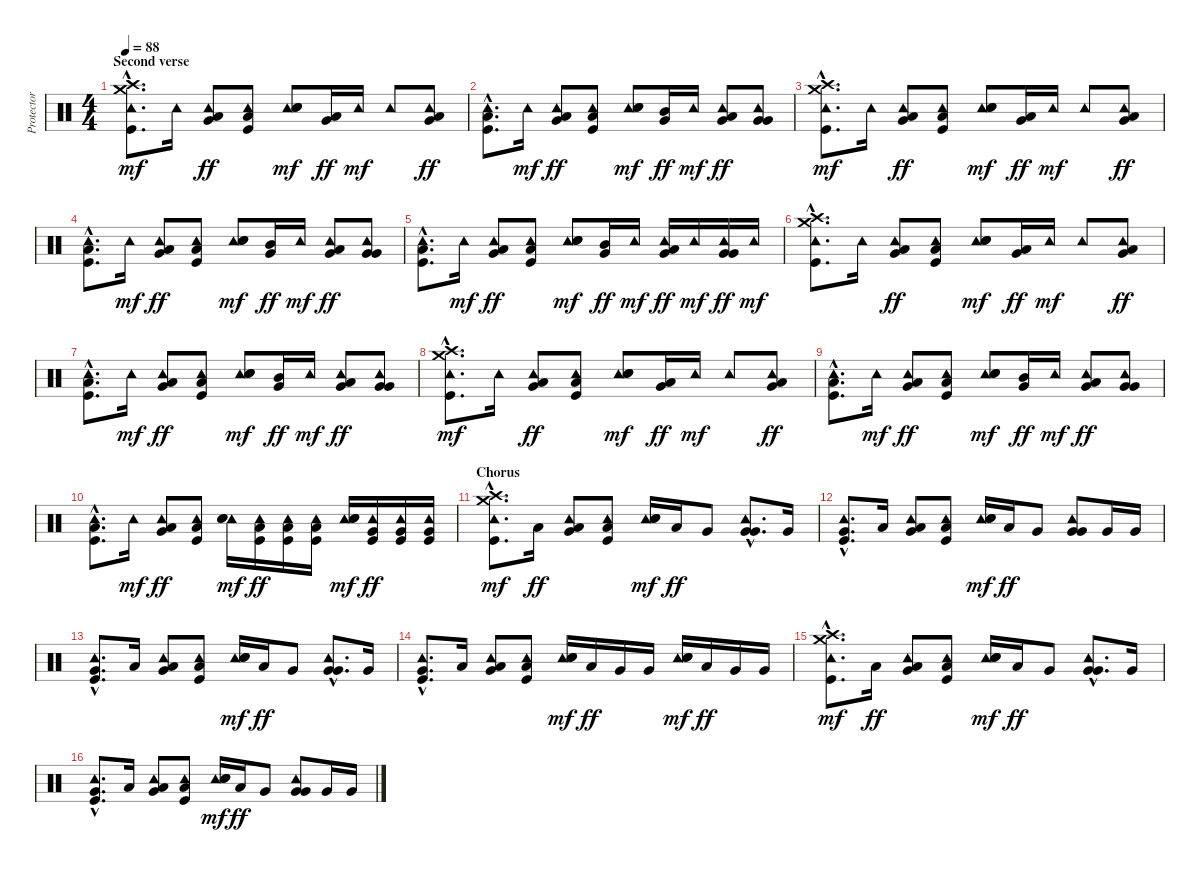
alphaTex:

\track ("Protector (Drums)" "Protector ") {instrument percussion}
\staff {score}
\articulation defaults
\ts (4 4)
\section ("" "Second verse")
\tempo 88
\clef neutral
\ks c
("Crash high (hit)"{hac} "Crash medium (hit)"{hac} "Tambourine (hit)"{hac} "Kick (hit)"{hac}).8{d dy mf} "Tambourine (hit)".16 ("Tambourine (hit)" "Low Tom (hit)" "Very Low Tom (hit)").8{bu 120 dy ff} ("Tambourine (hit)" "Low Floor Tom (hit)" "Kick (hit)").8 ("Tambourine (hit)" "Electric Snare (hit)" "Snare (hit) 2").8{dy mf} ("Low Tom (hit)" "Very Low Tom (hit)").16{bu 120 dy ff} "Tambourine (hit)".16{dy mf} "Tambourine (hit)".8 ("Tambourine (hit)" "Low Tom (hit)" "Very Low Tom (hit)").8{bu 120 dy ff} |
("Tambourine (hit)"{hac} "Low Floor Tom (hit)"{hac} "Kick (hit)"{hac}).8{d} "Tambourine (hit)".16{dy mf} ("Tambourine (hit)" "Low Tom (hit)" "Very Low Tom (hit)").8{bu 120 dy ff} ("Tambourine (hit)" "Low Floor Tom (hit)" "Kick (hit)").8 ("Tambourine (hit)" "Electric Snare (hit)" "Snare (hit) 2").8{dy mf} ("Mid Tom (hit)" "Very Low Tom (hit)").16{bu 120 dy ff} "Tambourine (hit)".16{dy mf} ("Tambourine (hit)" "Low Tom (hit)" "Very Low Tom (hit)").8{bu 120 dy ff} ("Tambourine (hit)" "Very Low Tom (hit)" "Very Low Tom (hit)").8{bu 120} |
("Crash high (hit)"{hac} "Crash medium (hit)"{hac} "Tambourine (hit)"{hac} "Kick (hit)"{hac}).8{d dy mf} "Tambourine (hit)".16 ("Tambourine (hit)" "Low Tom (hit)" "Very Low Tom (hit)").8{bu 120 dy ff} ("Tambourine (hit)" "Low Floor Tom (hit)" "Kick (hit)").8 ("Tambourine (hit)" "Electric Snare (hit)" "Snare (hit) 2").8{dy mf} ("Low Tom (hit)" "Very Low Tom (hit)").16{bu 120 dy ff} "Tambourine (hit)".16{dy mf} "Tambourine (hit)".8 ("Tambourine (hit)" "Low Tom (hit)" "Very Low Tom (hit)").8{bu 120 dy ff} |
("Tambourine (hit)"{hac} "Low Floor Tom (hit)"{hac} "Kick (hit)"{hac}).8{d} "Tambourine (hit)".16{dy mf} ("Tambourine (hit)" "Low Tom (hit)" "Very Low Tom (hit)").8{bu 120 dy ff} ("Tambourine (hit)" "Low Floor Tom (hit)" "Kick (hit)").8 ("Tambourine (hit)" "Electric Snare (hit)" "Snare (hit) 2").8{dy mf} ("Mid Tom (hit)" "Very Low Tom (hit)").16{bu 120 dy ff} "Tambourine (hit)".16{dy mf} ("Tambourine (hit)" "Low Tom (hit)" "Very Low Tom (hit)").8{bu 120 dy ff} ("Tambourine (hit)" "Very Low Tom (hit)" "Very Low Tom (hit)").8{bu 120} |
("Tambourine (hit)"{hac} "Low Floor Tom (hit)"{hac} "Kick (hit)"{hac}).8{d} "Tambourine (hit)".16{dy mf} ("Tambourine (hit)" "Low Tom (hit)" "Very Low Tom (hit)").8{bu 120 dy ff} ("Tambourine (hit)" "Low Floor Tom (hit)" "Kick (hit)").8 ("Tambourine (hit)" "Electric Snare (hit)" "Snare (hit) 2").8{dy mf} ("Mid Tom (hit)" "Very Low Tom (hit)").16{bu 120 dy ff} "Tambourine (hit)".16{dy mf} ("Tambourine (hit)" "Low Tom (hit)" "Very Low Tom (hit)").16{bu 120 dy ff} "Tambourine (hit)".16{dy mf} ("Tambourine (hit)" "Very Low Tom (hit)" "Very Low Tom (hit)").16{bu 120 dy ff} "Tambourine (hit)".16{dy mf} |
("Crash high (hit)"{hac} "Crash medium (hit)"{hac} "Tambourine (hit)"{hac} "Kick (hit)"{hac}).8{d} "Tambourine (hit)".16 ("Tambourine (hit)" "Low Tom (hit)" "Very Low Tom (hit)").8{bu 120 dy ff} ("Tambourine (hit)" "Low Floor Tom (hit)" "Kick (hit)").8 ("Tambourine (hit)" "Electric Snare (hit)" "Snare (hit) 2").8{dy mf} ("Low Tom (hit)" "Very Low Tom (hit)").16{bu 120 dy ff} "Tambourine (hit)".16{dy mf} "Tambourine (hit)".8 ("Tambourine (hit)" "Low Tom (hit)" "Very Low Tom (hit)").8{bu 120 dy ff} |
("Tambourine (hit)"{hac} "Low Floor Tom (hit)"{hac} "Kick (hit)"{hac}).8{d} "Tambourine (hit)".16{dy mf} ("Tambourine (hit)" "Low Tom (hit)" "Very Low Tom (hit)").8{bu 120 dy ff} ("Tambourine (hit)" "Low Floor Tom (hit)" "Kick (hit)").8 ("Tambourine (hit)" "Electric Snare (hit)" "Snare (hit) 2").8{dy mf} ("Mid Tom (hit)" "Very Low Tom (hit)").16{bu 120 dy ff} "Tambourine (hit)".16{dy mf} ("Tambourine (hit)" "Low Tom (hit)" "Very Low Tom (hit)").8{bu 120 dy ff} ("Tambourine (hit)" "Very Low Tom (hit)" "Very Low Tom (hit)").8{bu 120} |
("Crash high (hit)"{hac} "Crash medium (hit)"{hac} "Tambourine (hit)"{hac} "Kick (hit)"{hac}).8{d dy mf} "Tambourine (hit)".16 ("Tambourine (hit)" "Low Tom (hit)" "Very Low Tom (hit)").8{bu 120 dy ff} ("Tambourine (hit)" "Low Floor Tom (hit)" "Kick (hit)").8 ("Tambourine (hit)" "Electric Snare (hit)" "Snare (hit) 2").8{dy mf} ("Low Tom (hit)" "Very Low Tom (hit)").16{bu 120 dy ff} "Tambourine (hit)".16{dy mf} "Tambourine (hit)".8 ("Tambourine (hit)" "Low Tom (hit)" "Very Low Tom (hit)").8{bu 120 dy ff} |
("Tambourine (hit)"{hac} "Low Floor Tom (hit)"{hac} "Kick (hit)"{hac}).8{d} "Tambourine (hit)".16{dy mf} ("Tambourine (hit)" "Low Tom (hit)" "Very Low Tom (hit)").8{bu 120 dy ff} ("Tambourine (hit)" "Low Floor Tom (hit)" "Kick (hit)").8 ("Tambourine (hit)" "Electric Snare (hit)" "Snare (hit) 2").8{dy mf} ("Mid Tom (hit)" "Very Low Tom (hit)").16{bu 120 dy ff} "Tambourine (hit)".16{dy mf} ("Tambourine (hit)" "Low Tom (hit)" "Very Low Tom (hit)").8{bu 120 dy ff} ("Tambourine (hit)" "Very Low Tom (hit)" "Very Low Tom (hit)").8{bu 120} |
("Tambourine (hit)"{hac} "Low Floor Tom (hit)"{hac} "Kick (hit)"{hac}).8{d} "Tambourine (hit)".16{dy mf} ("Tambourine (hit)" "Low Tom (hit)" "Very Low Tom (hit)").8{bu 120 dy ff} ("Tambourine (hit)" "Low Floor Tom (hit)" "Kick (hit)").8 ("Tambourine (hit)" "Electric Snare (hit)" "Snare (hit) 2").16{dy mf} ("Tambourine (hit)" "Low Tom (hit)" "Kick (hit)").16{dy ff} ("Tambourine (hit)" "Low Tom (hit)" "Kick (hit)").16 ("Tambourine (hit)" "Low Tom (hit)" "Kick (hit)").16 ("Tambourine (hit)" "Electric Snare (hit)" "Snare (hit) 2").16{dy mf} ("Tambourine (hit)" "Very Low Tom (hit)" "Kick (hit)").16{dy ff} ("Tambourine (hit)" "Very Low Tom (hit)" "Kick (hit)").16 ("Tambourine (hit)" "Very Low Tom (hit)" "Kick (hit)").16 |
\section ("" "Chorus")
("Crash high (hit)"{hac} "Crash medium (hit)"{hac} "Tambourine (hit)"{hac} "Kick (hit)"{hac}).8{d dy mf} "Low Tom (hit)".16{dy ff} ("Tambourine (hit)" "Low Tom (hit)" "Very Low Tom (hit)").8{bu 120} ("Tambourine (hit)" "Low Floor Tom (hit)" "Kick (hit)").8 ("Tambourine (hit)" "Snare (hit) 2" "Electric Snare (hit)").16{dy mf} "Low Tom (hit)".16{dy ff} "Very Low Tom (hit)".8 ("Tambourine (hit)"{hac} "Very Low Tom (hit)"{hac} "Very Low Tom (hit)"{hac}).8{d bu 120} "Very Low Tom (hit)".16 |
("Tambourine (hit)"{hac} "Very Low Tom (hit)"{hac} "Kick (hit)"{hac}).8{d} "Low Tom (hit)".16 ("Tambourine (hit)" "Low Tom (hit)" "Very Low Tom (hit)").8{bu 120} ("Tambourine (hit)" "Low Floor Tom (hit)" "Kick (hit)").8 ("Tambourine (hit)" "Snare (hit) 2" "Electric Snare (hit)").16{dy mf} "Low Tom (hit)".16{dy ff} "Very Low Tom (hit)".8 ("Tambourine (hit)" "Very Low Tom (hit)" "Very Low Tom (hit)").8{bu 120} "Very Low Tom (hit)".16 "Very Low Tom (hit)".16 |
("Tambourine (hit)"{hac} "Very Low Tom (hit)"{hac} "Kick (hit)"{hac}).8{d} "Low Tom (hit)".16 ("Tambourine (hit)" "Low Tom (hit)" "Very Low Tom (hit)").8{bu 120} ("Tambourine (hit)" "Low Floor Tom (hit)" "Kick (hit)").8 ("Tambourine (hit)" "Snare (hit) 2" "Electric Snare (hit)").16{dy mf} "Low Tom (hit)".16{dy ff} "Very Low Tom (hit)".8 ("Tambourine (hit)"{hac} "Very Low Tom (hit)"{hac} "Very Low Tom (hit)"{hac}).8{d bu 120} "Very Low Tom (hit)".16 |
("Tambourine (hit)"{hac} "Very Low Tom (hit)"{hac} "Kick (hit)"{hac}).8{d} "Low Tom (hit)".16 ("Tambourine (hit)" "Low Tom (hit)" "Very Low Tom (hit)").8{bu 120} ("Tambourine (hit)" "Low Floor Tom (hit)" "Kick (hit)").8 ("Tambourine (hit)" "Electric Snare (hit)" "Snare (hit) 2").16{dy mf} "Low Tom (hit)".16{dy ff} "Very Low Tom (hit)".16 "Very Low Tom (hit)".16 ("Tambourine (hit)" "Electric Snare (hit)" "Snare (hit) 2").16{dy mf} "Low Tom (hit)".16{dy ff} "Very Low Tom (hit)".16 "Very Low Tom (hit)".16 |
("Crash high (hit)"{hac} "Crash medium (hit)"{hac} "Tambourine (hit)"{hac} "Kick (hit)"{hac}).8{d dy mf} "Low Tom (hit)".16{dy ff} ("Tambourine (hit)" "Low Tom (hit)" "Very Low Tom (hit)").8{bu 120} ("Tambourine (hit)" "Low Floor Tom (hit)" "Kick (hit)").8 ("Tambourine (hit)" "Snare (hit) 2" "Electric Snare (hit)").16{dy mf} "Low Tom (hit)".16{dy ff} "Very Low Tom (hit)".8 ("Tambourine (hit)"{hac} "Very Low Tom (hit)"{hac} "Very Low Tom (hit)"{hac}).8{d bu 120} "Very Low Tom (hit)".16 |
("Tambourine (hit)"{hac} "Very Low Tom (hit)"{hac} "Kick (hit)"{hac}).8{d} "Low Tom (hit)".16 ("Tambourine (hit)" "Low Tom (hit)" "Very Low Tom (hit)").8{bu 120} ("Tambourine (hit)" "Low Floor Tom (hit)" "Kick (hit)").8 ("Tambourine (hit)" "Snare (hit) 2" "Electric Snare (hit)").16{dy mf} "Low Tom (hit)".16{dy ff} "Very Low Tom (hit)".8 ("Tambourine (hit)" "Very Low Tom (hit)" "Very Low Tom (hit)").8{bu 120} "Very Low Tom (hit)".16 "Very Low Tom (hit)".16
